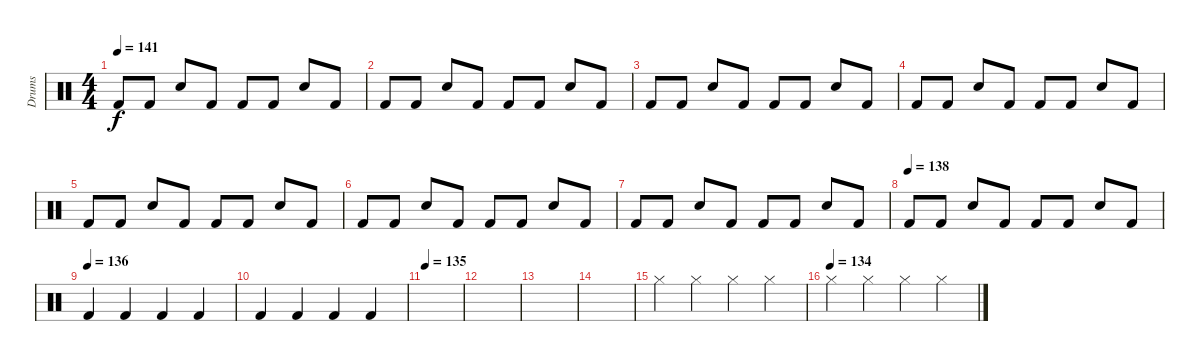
\track ("Drums" "Drums") {instrument percussion}
\staff {score}
\articulation defaults
\ts (4 4)
\tempo 141
\clef neutral
\ks c "Kick (hit) 2".8{dy f} "Kick (hit) 2".8 "Snare (hit) 2".8 "Kick (hit) 2".8 "Kick (hit) 2".8 "Kick (hit) 2".8 "Snare (hit) 2".8 "Kick (hit) 2".8
|
"Kick (hit) 2".8 "Kick (hit) 2".8 "Snare (hit) 2".8 "Kick (hit) 2".8 "Kick (hit) 2".8 "Kick (hit) 2".8 "Snare (hit) 2".8 "Kick (hit) 2".8 |
"Kick (hit) 2".8 "Kick (hit) 2".8 "Snare (hit) 2".8 "Kick (hit) 2".8 "Kick (hit) 2".8 "Kick (hit) 2".8 "Snare (hit) 2".8 "Kick (hit) 2".8 |
"Kick (hit) 2".8 "Kick (hit) 2".8 "Snare (hit) 2".8 "Kick (hit) 2".8 "Kick (hit) 2".8 "Kick (hit) 2".8 "Snare (hit) 2".8 "Kick (hit) 2".8 |
"Kick (hit) 2".8 "Kick (hit) 2".8 "Snare (hit) 2".8 "Kick (hit) 2".8 "Kick (hit) 2".8 "Kick (hit) 2".8 "Snare (hit) 2".8 "Kick (hit) 2".8 |
"Kick (hit) 2".8 "Kick (hit) 2".8 "Snare (hit) 2".8 "Kick (hit) 2".8 "Kick (hit) 2".8 "Kick (hit) 2".8 "Snare (hit) 2".8 "Kick (hit) 2".8 |
"Kick (hit) 2".8 "Kick (hit) 2".8 "Snare (hit) 2".8 "Kick (hit) 2".8 "Kick (hit) 2".8 "Kick (hit) 2".8 "Snare (hit) 2".8 "Kick (hit) 2".8 |
\tempo (138)
"Kick (hit) 2".8 "Kick (hit) 2".8 "Snare (hit) 2".8 "Kick (hit) 2".8 "Kick (hit) 2".8 "Kick (hit) 2".8 "Snare (hit) 2".8 "Kick (hit) 2".8 |
\tempo (136)
"Kick (hit) 2".4 "Kick (hit) 2".4 "Kick (hit) 2".4 "Kick (hit) 2".4 |
"Kick (hit) 2".4 "Kick (hit) 2".4 "Kick (hit) 2".4 "Kick (hit) 2".4 |
\tempo 135
|
|
|
|
"Hi-Hat (closed)".4 "Hi-Hat (closed)".4 "Hi-Hat (closed)".4 "Hi-Hat (closed)".4 |
\tempo (134)
"Hi-Hat (closed)".4 "Hi-Hat (closed)".4 "Hi-Hat (closed)".4 "Hi-Hat (closed)".4
